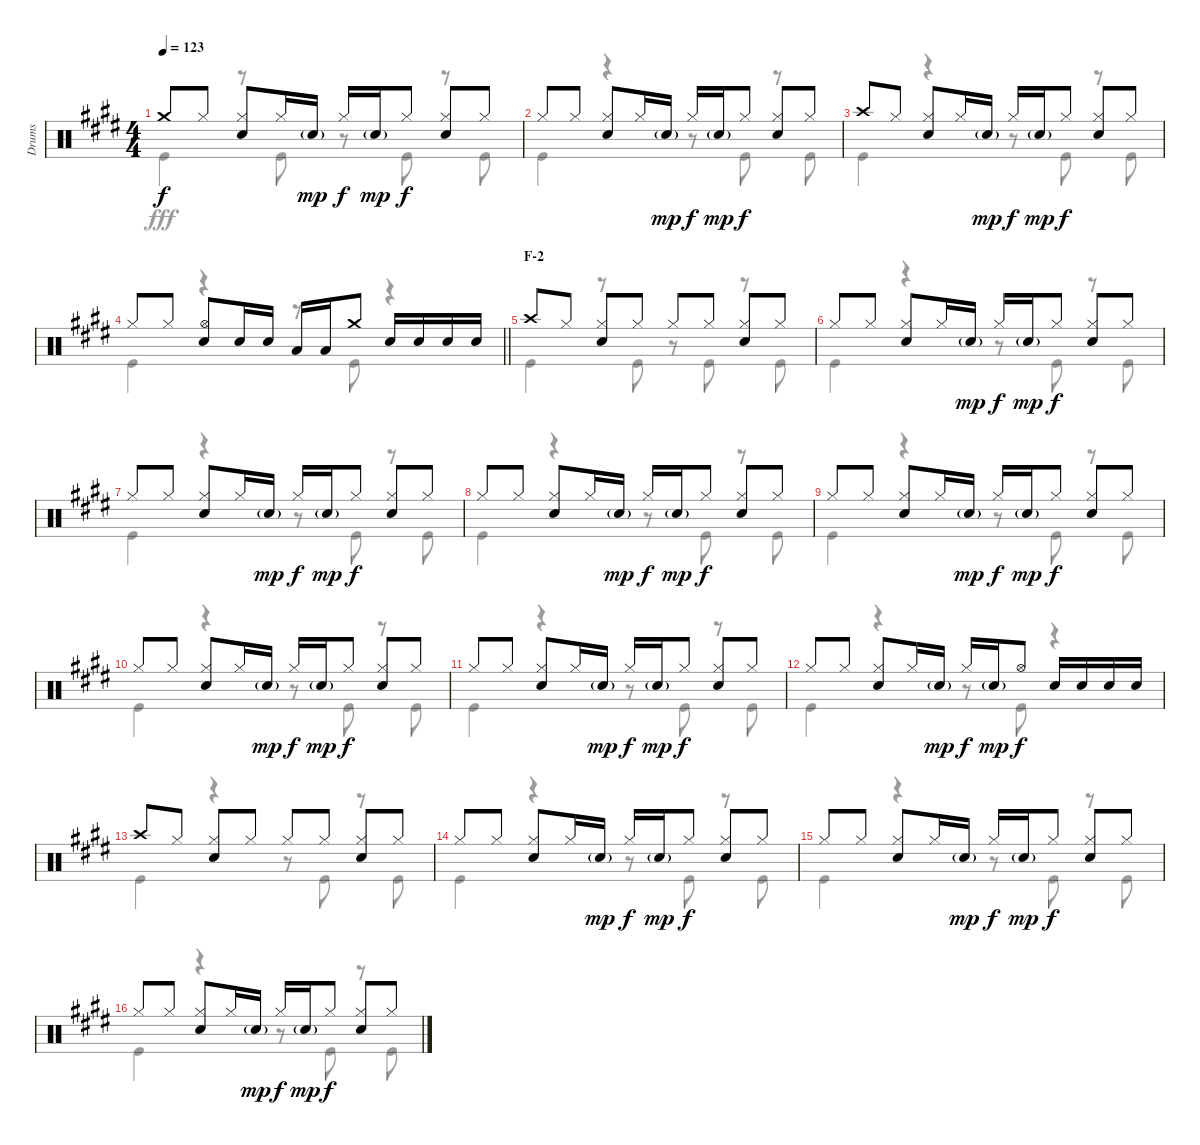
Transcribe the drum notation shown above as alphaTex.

\track ("Drums" "Drums") {instrument percussion}
\staff {score}
\articulation defaults
\voice
\ts (4 4)
\tempo 123
\clef neutral
\ks e "Crash medium (hit)".8{dy f} "Hi-Hat (closed)".8
("Hi-Hat (closed)" "Snare (hit) 2").8 "Hi-Hat (closed)".16 "Snare (hit) 2"{g}.16{dy mp} "Hi-Hat (closed)".16{dy f} "Snare (hit) 2"{g}.16{dy mp} "Hi-Hat (closed)".8{dy f} ("Hi-Hat (closed)" "Snare (hit) 2").8 "Hi-Hat (closed)".8 |
"Hi-Hat (closed)".8 "Hi-Hat (closed)".8 ("Hi-Hat (closed)" "Snare (hit) 2").8 "Hi-Hat (closed)".16 "Snare (hit) 2"{g}.16{dy mp} "Hi-Hat (closed)".16{dy f} "Snare (hit) 2"{g}.16{dy mp} "Hi-Hat (closed)".8{dy f} ("Hi-Hat (closed)" "Snare (hit) 2").8 "Hi-Hat (closed)".8 |
"Crash high (hit)".8 "Hi-Hat (closed)".8 ("Hi-Hat (closed)" "Snare (hit) 2").8 "Hi-Hat (closed)".16 "Snare (hit) 2"{g}.16{dy mp} "Hi-Hat (closed)".16{dy f} "Snare (hit) 2"{g}.16{dy mp} "Hi-Hat (closed)".8{dy f} ("Hi-Hat (closed)" "Snare (hit) 2").8 "Hi-Hat (closed)".8 |
\barLineRight lightlight "Hi-Hat (closed)".8 "Hi-Hat (closed)".8
("Hi-Hat (open)" "Snare (hit) 2").8 "Snare (hit) 2".16 "Snare (hit) 2".16 "Low Tom (hit)".16 "Low Tom (hit)".16 "Crash medium (hit)".8 "Snare (hit) 2".16 "Snare (hit) 2".16 "Snare (hit) 2".16 "Snare (hit) 2".16 |
\section ("" "F-2")
"Crash high (hit)".8 "Hi-Hat (closed)".8 ("Hi-Hat (closed)" "Snare (hit) 2").8 "Hi-Hat (closed)".8 "Hi-Hat (closed)".8 "Hi-Hat (closed)".8 ("Hi-Hat (closed)" "Snare (hit) 2").8 "Hi-Hat (closed)".8 |
"Hi-Hat (closed)".8 "Hi-Hat (closed)".8 ("Hi-Hat (closed)" "Snare (hit) 2").8 "Hi-Hat (closed)".16 "Snare (hit) 2"{g}.16{dy mp} "Hi-Hat (closed)".16{dy f} "Snare (hit) 2"{g}.16{dy mp} "Hi-Hat (closed)".8{dy f} ("Hi-Hat (closed)" "Snare (hit) 2").8 "Hi-Hat (closed)".8 |
"Hi-Hat (closed)".8 "Hi-Hat (closed)".8 ("Hi-Hat (closed)" "Snare (hit) 2").8 "Hi-Hat (closed)".16 "Snare (hit) 2"{g}.16{dy mp} "Hi-Hat (closed)".16{dy f} "Snare (hit) 2"{g}.16{dy mp} "Hi-Hat (closed)".8{dy f} ("Hi-Hat (closed)" "Snare (hit) 2").8 "Hi-Hat (closed)".8 |
"Hi-Hat (closed)".8 "Hi-Hat (closed)".8 ("Hi-Hat (closed)" "Snare (hit) 2").8 "Hi-Hat (closed)".16 "Snare (hit) 2"{g}.16{dy mp} "Hi-Hat (closed)".16{dy f} "Snare (hit) 2"{g}.16{dy mp} "Hi-Hat (closed)".8{dy f} ("Hi-Hat (closed)" "Snare (hit) 2").8 "Hi-Hat (closed)".8 |
"Hi-Hat (closed)".8 "Hi-Hat (closed)".8 ("Hi-Hat (closed)" "Snare (hit) 2").8 "Hi-Hat (closed)".16 "Snare (hit) 2"{g}.16{dy mp} "Hi-Hat (closed)".16{dy f} "Snare (hit) 2"{g}.16{dy mp} "Hi-Hat (closed)".8{dy f} ("Hi-Hat (closed)" "Snare (hit) 2").8 "Hi-Hat (closed)".8 |
"Hi-Hat (closed)".8 "Hi-Hat (closed)".8 ("Hi-Hat (closed)" "Snare (hit) 2").8 "Hi-Hat (closed)".16 "Snare (hit) 2"{g}.16{dy mp} "Hi-Hat (closed)".16{dy f} "Snare (hit) 2"{g}.16{dy mp} "Hi-Hat (closed)".8{dy f} ("Hi-Hat (closed)" "Snare (hit) 2").8 "Hi-Hat (closed)".8 |
"Hi-Hat (closed)".8 "Hi-Hat (closed)".8 ("Hi-Hat (closed)" "Snare (hit) 2").8 "Hi-Hat (closed)".16 "Snare (hit) 2"{g}.16{dy mp} "Hi-Hat (closed)".16{dy f} "Snare (hit) 2"{g}.16{dy mp} "Hi-Hat (closed)".8{dy f} ("Hi-Hat (closed)" "Snare (hit) 2").8 "Hi-Hat (closed)".8 |
"Hi-Hat (closed)".8 "Hi-Hat (closed)".8 ("Hi-Hat (closed)" "Snare (hit) 2").8 "Hi-Hat (closed)".16 "Snare (hit) 2"{g}.16{dy mp} "Hi-Hat (closed)".16{dy f} "Snare (hit) 2"{g}.16{dy mp} "Hi-Hat (open)".8{dy f} "Snare (hit) 2".16 "Snare (hit) 2".16 "Snare (hit) 2".16 "Snare (hit) 2".16 |
"Crash high (hit)".8 "Hi-Hat (closed)".8 ("Hi-Hat (closed)" "Snare (hit) 2").8 "Hi-Hat (closed)".8 "Hi-Hat (closed)".8 "Hi-Hat (closed)".8 ("Hi-Hat (closed)" "Snare (hit) 2").8 "Hi-Hat (closed)".8 |
"Hi-Hat (closed)".8 "Hi-Hat (closed)".8 ("Hi-Hat (closed)" "Snare (hit) 2").8 "Hi-Hat (closed)".16 "Snare (hit) 2"{g}.16{dy mp} "Hi-Hat (closed)".16{dy f} "Snare (hit) 2"{g}.16{dy mp} "Hi-Hat (closed)".8{dy f} ("Hi-Hat (closed)" "Snare (hit) 2").8 "Hi-Hat (closed)".8 |
"Hi-Hat (closed)".8 "Hi-Hat (closed)".8 ("Hi-Hat (closed)" "Snare (hit) 2").8 "Hi-Hat (closed)".16 "Snare (hit) 2"{g}.16{dy mp} "Hi-Hat (closed)".16{dy f} "Snare (hit) 2"{g}.16{dy mp} "Hi-Hat (closed)".8{dy f} ("Hi-Hat (closed)" "Snare (hit) 2").8 "Hi-Hat (closed)".8 |
"Hi-Hat (closed)".8 "Hi-Hat (closed)".8 ("Hi-Hat (closed)" "Snare (hit) 2").8 "Hi-Hat (closed)".16 "Snare (hit) 2"{g}.16{dy mp} "Hi-Hat (closed)".16{dy f} "Snare (hit) 2"{g}.16{dy mp} "Hi-Hat (closed)".8{dy f} ("Hi-Hat (closed)" "Snare (hit) 2").8 "Hi-Hat (closed)".8
\voice
\clef neutral
\ottava regular
\simile none
\ks e "Kick (hit)".4{dy fff}
r.8 "Kick (hit)".8 r.8 "Kick (hit)".8 r.8 "Kick (hit)".8 |
"Kick (hit)".4 r.4 r.8 "Kick (hit)".8 r.8 "Kick (hit)".8 |
"Kick (hit)".4 r.4 r.8 "Kick (hit)".8 r.8 "Kick (hit)".8 |
\barLineRight lightlight "Kick (hit)".4
r.4 r.8 "Kick (hit)".8 r.4 |
"Kick (hit)".4 r.8 "Kick (hit)".8 r.8 "Kick (hit)".8 r.8 "Kick (hit)".8 |
"Kick (hit)".4 r.4 r.8 "Kick (hit)".8 r.8 "Kick (hit)".8 |
"Kick (hit)".4 r.4 r.8 "Kick (hit)".8 r.8 "Kick (hit)".8 |
"Kick (hit)".4 r.4 r.8 "Kick (hit)".8 r.8 "Kick (hit)".8 |
"Kick (hit)".4 r.4 r.8 "Kick (hit)".8 r.8 "Kick (hit)".8 |
"Kick (hit)".4 r.4 r.8 "Kick (hit)".8 r.8 "Kick (hit)".8 |
"Kick (hit)".4 r.4 r.8 "Kick (hit)".8 r.8 "Kick (hit)".8 |
"Kick (hit)".4 r.4 r.8 "Kick (hit)".8 r.4 |
"Kick (hit)".4 r.4 r.8 "Kick (hit)".8 r.8 "Kick (hit)".8 |
"Kick (hit)".4 r.4 r.8 "Kick (hit)".8 r.8 "Kick (hit)".8 |
"Kick (hit)".4 r.4 r.8 "Kick (hit)".8 r.8 "Kick (hit)".8 |
"Kick (hit)".4 r.4 r.8 "Kick (hit)".8 r.8 "Kick (hit)".8
